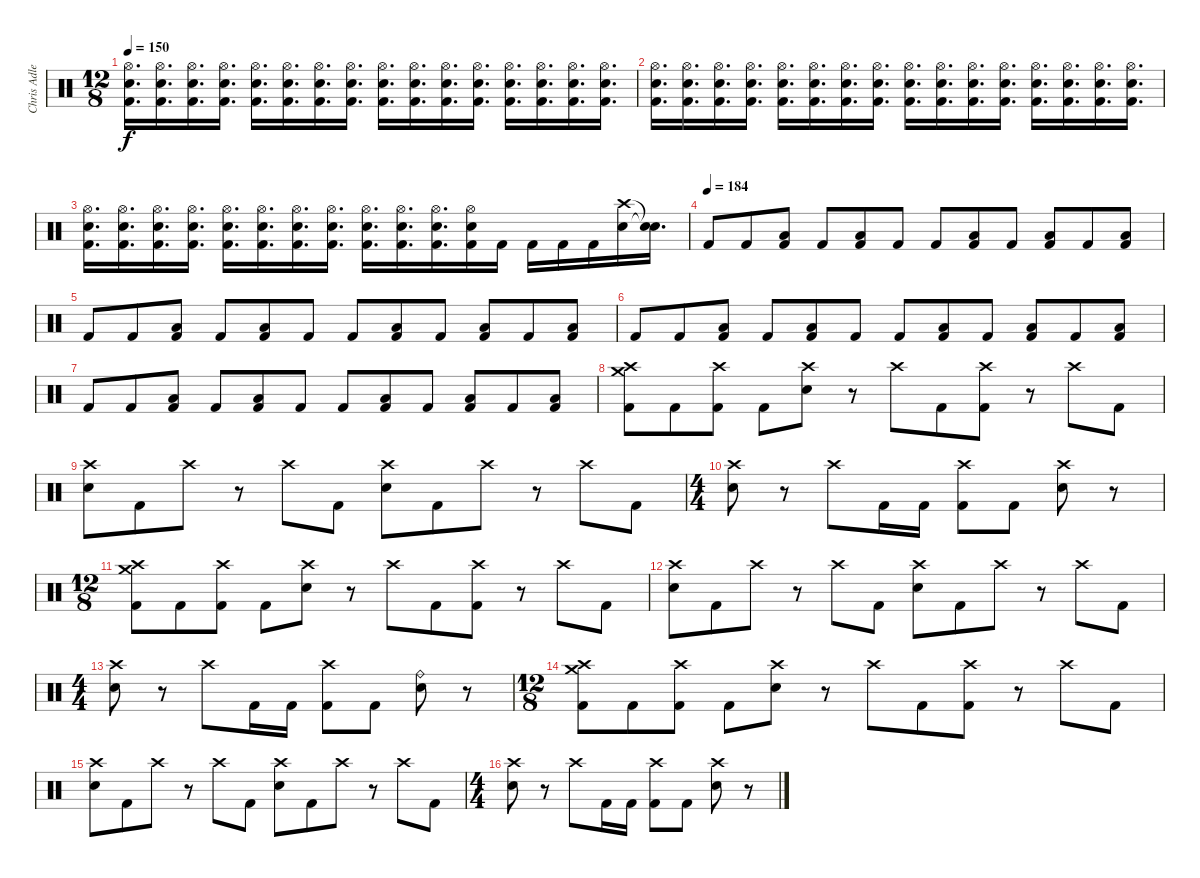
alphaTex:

\track ("Chris Adler" "Chris Adle") {instrument percussion}
\staff {score}
\articulation defaults
\ts (12 8)
\tempo 150
\clef neutral
\ks c
("Hi-Hat (open)" "Electric Snare (hit)" "Kick (hit) 2").16{d dy f volume 16} ("Hi-Hat (open)" "Electric Snare (hit)" "Kick (hit) 2").16{d} ("Hi-Hat (open)" "Electric Snare (hit)" "Kick (hit) 2").16{d} ("Hi-Hat (open)" "Electric Snare (hit)" "Kick (hit) 2").16{d} ("Hi-Hat (open)" "Electric Snare (hit)" "Kick (hit) 2").16{d} ("Hi-Hat (open)" "Electric Snare (hit)" "Kick (hit) 2").16{d} ("Hi-Hat (open)" "Electric Snare (hit)" "Kick (hit) 2").16{d} ("Hi-Hat (open)" "Electric Snare (hit)" "Kick (hit) 2").16{d} ("Hi-Hat (open)" "Electric Snare (hit)" "Kick (hit) 2").16{d} ("Hi-Hat (open)" "Electric Snare (hit)" "Kick (hit) 2").16{d} ("Hi-Hat (open)" "Electric Snare (hit)" "Kick (hit) 2").16{d} ("Hi-Hat (open)" "Electric Snare (hit)" "Kick (hit) 2").16{d} ("Hi-Hat (open)" "Electric Snare (hit)" "Kick (hit) 2").16{d} ("Hi-Hat (open)" "Electric Snare (hit)" "Kick (hit) 2").16{d} ("Hi-Hat (open)" "Electric Snare (hit)" "Kick (hit) 2").16{d} ("Hi-Hat (open)" "Electric Snare (hit)" "Kick (hit) 2").16{d} |
("Hi-Hat (open)" "Electric Snare (hit)" "Kick (hit) 2").16{d volume 16} ("Hi-Hat (open)" "Electric Snare (hit)" "Kick (hit) 2").16{d} ("Hi-Hat (open)" "Electric Snare (hit)" "Kick (hit) 2").16{d} ("Hi-Hat (open)" "Electric Snare (hit)" "Kick (hit) 2").16{d} ("Hi-Hat (open)" "Electric Snare (hit)" "Kick (hit) 2").16{d} ("Hi-Hat (open)" "Electric Snare (hit)" "Kick (hit) 2").16{d} ("Hi-Hat (open)" "Electric Snare (hit)" "Kick (hit) 2").16{d} ("Hi-Hat (open)" "Electric Snare (hit)" "Kick (hit) 2").16{d} ("Hi-Hat (open)" "Electric Snare (hit)" "Kick (hit) 2").16{d} ("Hi-Hat (open)" "Electric Snare (hit)" "Kick (hit) 2").16{d} ("Hi-Hat (open)" "Electric Snare (hit)" "Kick (hit) 2").16{d} ("Hi-Hat (open)" "Electric Snare (hit)" "Kick (hit) 2").16{d} ("Hi-Hat (open)" "Electric Snare (hit)" "Kick (hit) 2").16{d} ("Hi-Hat (open)" "Electric Snare (hit)" "Kick (hit) 2").16{d} ("Hi-Hat (open)" "Electric Snare (hit)" "Kick (hit) 2").16{d} ("Hi-Hat (open)" "Electric Snare (hit)" "Kick (hit) 2").16{d} |
("Hi-Hat (open)" "Electric Snare (hit)" "Kick (hit) 2").16{d volume 16} ("Hi-Hat (open)" "Electric Snare (hit)" "Kick (hit) 2").16{d} ("Hi-Hat (open)" "Electric Snare (hit)" "Kick (hit) 2").16{d} ("Hi-Hat (open)" "Electric Snare (hit)" "Kick (hit) 2").16{d} ("Hi-Hat (open)" "Electric Snare (hit)" "Kick (hit) 2").16{d} ("Hi-Hat (open)" "Electric Snare (hit)" "Kick (hit) 2").16{d} ("Hi-Hat (open)" "Electric Snare (hit)" "Kick (hit) 2").16{d} ("Hi-Hat (open)" "Electric Snare (hit)" "Kick (hit) 2").16{d} ("Hi-Hat (open)" "Electric Snare (hit)" "Kick (hit) 2").16{d} ("Hi-Hat (open)" "Electric Snare (hit)" "Kick (hit) 2").16{d} ("Hi-Hat (open)" "Electric Snare (hit)" "Kick (hit) 2").16{d} ("Hi-Hat (open)" "Electric Snare (hit)" "Kick (hit) 2").16 "Kick (hit) 2".16 "Kick (hit) 2".16 "Kick (hit) 2".16 "Kick (hit) 2".16 ("Crash high (hit)" "Electric Snare (hit)").16 ("Snare (hit)"{t} "Snare (hit)"{t}).16{d} |
\tempo (184)
"Kick (hit) 2".8 "Kick (hit) 2".8 ("Low Floor Tom (hit)" "Kick (hit) 2").8 "Kick (hit) 2".8 ("Low Floor Tom (hit)" "Kick (hit) 2").8 "Kick (hit) 2".8 "Kick (hit) 2".8 ("Low Floor Tom (hit)" "Kick (hit) 2").8 "Kick (hit) 2".8 ("Low Floor Tom (hit)" "Kick (hit) 2").8 "Kick (hit) 2".8 ("Low Floor Tom (hit)" "Kick (hit) 2").8 |
"Kick (hit) 2".8 "Kick (hit) 2".8 ("Low Floor Tom (hit)" "Kick (hit) 2").8 "Kick (hit) 2".8 ("Low Floor Tom (hit)" "Kick (hit) 2").8 "Kick (hit) 2".8 "Kick (hit) 2".8 ("Low Floor Tom (hit)" "Kick (hit) 2").8 "Kick (hit) 2".8 ("Low Floor Tom (hit)" "Kick (hit) 2").8 "Kick (hit) 2".8 ("Low Floor Tom (hit)" "Kick (hit) 2").8 |
"Kick (hit) 2".8 "Kick (hit) 2".8 ("Low Floor Tom (hit)" "Kick (hit) 2").8 "Kick (hit) 2".8 ("Low Floor Tom (hit)" "Kick (hit) 2").8 "Kick (hit) 2".8 "Kick (hit) 2".8 ("Low Floor Tom (hit)" "Kick (hit) 2").8 "Kick (hit) 2".8 ("Low Floor Tom (hit)" "Kick (hit) 2").8 "Kick (hit) 2".8 ("Low Floor Tom (hit)" "Kick (hit) 2").8 |
"Kick (hit) 2".8 "Kick (hit) 2".8 ("Low Floor Tom (hit)" "Kick (hit) 2").8 "Kick (hit) 2".8 ("Low Floor Tom (hit)" "Kick (hit) 2").8 "Kick (hit) 2".8 "Kick (hit) 2".8 ("Low Floor Tom (hit)" "Kick (hit) 2").8 "Kick (hit) 2".8 ("Low Floor Tom (hit)" "Kick (hit) 2").8 "Kick (hit) 2".8 ("Low Floor Tom (hit)" "Kick (hit) 2").8 |
("Crash high (hit)" "Crash medium (hit)" "Kick (hit) 2").8 "Kick (hit) 2".8 ("Crash high (hit)" "Kick (hit) 2").8 "Kick (hit) 2".8 ("Crash high (hit)" "Electric Snare (hit)").8 r.8 "Crash high (hit)".8 "Kick (hit) 2".8 ("Crash high (hit)" "Kick (hit) 2").8 r.8 "Crash high (hit)".8 "Kick (hit) 2".8 |
("Crash high (hit)" "Electric Snare (hit)").8 "Kick (hit) 2".8 "Crash high (hit)".8 r.8 "Crash high (hit)".8 "Kick (hit) 2".8 ("Crash high (hit)" "Electric Snare (hit)").8 "Kick (hit) 2".8 "Crash high (hit)".8 r.8 "Crash high (hit)".8 "Kick (hit) 2".8 |
\ts (4 4)
("Crash high (hit)" "Electric Snare (hit)").8 r.8 "Crash high (hit)".8 "Kick (hit) 2".16 "Kick (hit) 2".16 ("Crash high (hit)" "Kick (hit) 2").8 "Kick (hit) 2".8 ("Crash high (hit)" "Electric Snare (hit)").8 r.8 |
\ts (12 8)
("Crash high (hit)" "Crash medium (hit)" "Kick (hit) 2").8 "Kick (hit) 2".8 ("Crash high (hit)" "Kick (hit) 2").8 "Kick (hit) 2".8 ("Crash high (hit)" "Electric Snare (hit)").8 r.8 "Crash high (hit)".8 "Kick (hit) 2".8 ("Crash high (hit)" "Kick (hit) 2").8 r.8 "Crash high (hit)".8 "Kick (hit) 2".8 |
("Crash high (hit)" "Electric Snare (hit)").8 "Kick (hit) 2".8 "Crash high (hit)".8 r.8 "Crash high (hit)".8 "Kick (hit) 2".8 ("Crash high (hit)" "Electric Snare (hit)").8 "Kick (hit) 2".8 "Crash high (hit)".8 r.8 "Crash high (hit)".8 "Kick (hit) 2".8 |
\ts (4 4)
("Crash high (hit)" "Electric Snare (hit)").8 r.8 "Crash high (hit)".8 "Kick (hit) 2".16 "Kick (hit) 2".16 ("Crash high (hit)" "Kick (hit) 2").8 "Kick (hit) 2".8 ("Ride (bell)" "Electric Snare (hit)").8 r.8 |
\ts (12 8)
("Crash high (hit)" "Crash medium (hit)" "Kick (hit) 2").8 "Kick (hit) 2".8 ("Crash high (hit)" "Kick (hit) 2").8 "Kick (hit) 2".8 ("Crash high (hit)" "Electric Snare (hit)").8 r.8 "Crash high (hit)".8 "Kick (hit) 2".8 ("Crash high (hit)" "Kick (hit) 2").8 r.8 "Crash high (hit)".8 "Kick (hit) 2".8 |
("Crash high (hit)" "Electric Snare (hit)").8 "Kick (hit) 2".8 "Crash high (hit)".8 r.8 "Crash high (hit)".8 "Kick (hit) 2".8 ("Crash high (hit)" "Electric Snare (hit)").8 "Kick (hit) 2".8 "Crash high (hit)".8 r.8 "Crash high (hit)".8 "Kick (hit) 2".8 |
\ts (4 4)
("Crash high (hit)" "Electric Snare (hit)").8 r.8 "Crash high (hit)".8 "Kick (hit) 2".16 "Kick (hit) 2".16 ("Crash high (hit)" "Kick (hit) 2").8 "Kick (hit) 2".8 ("Crash high (hit)" "Electric Snare (hit)").8 r.8
